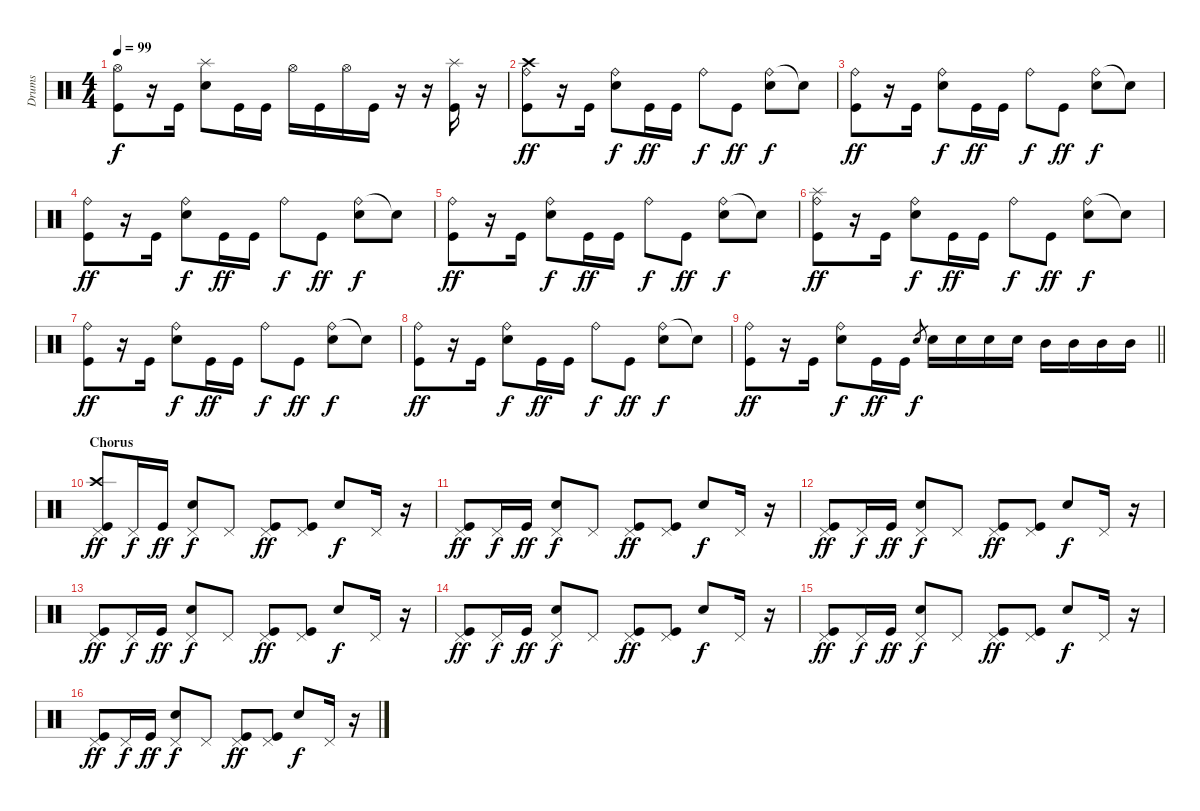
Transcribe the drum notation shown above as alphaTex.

\track ("Drums" "Drums") {instrument percussion}
\staff {score}
\articulation defaults
\ts (4 4)
\tempo 99
\clef neutral
\ks c
("Hi-Hat (open)" "Kick (hit)").8{dy f} r.16 "Kick (hit)".16 ("Splash (hit)" "Electric Snare (hit)").8 "Kick (hit)".16 "Kick (hit)".16 "Hi-Hat (open)".16 "Kick (hit)".16 "Hi-Hat (open)".16 "Kick (hit)".16 r.16 r.16 ("Splash (hit)" "Kick (hit)").16 r.16 |
("Crash high (hit)" "Ride (bell)" "Kick (hit)").8{dy ff} r.16 "Kick (hit)".16 ("Ride (bell)" "Electric Snare (hit)").8{dy f} "Kick (hit)".16{dy ff} "Kick (hit)".16 "Ride (bell)".8{dy f} "Kick (hit)".8{dy ff} ("Ride (bell)" "Electric Snare (hit)").8{dy f} "Snare (hit)"{t}.8 |
("Ride (bell)" "Kick (hit)").8{dy ff} r.16 "Kick (hit)".16 ("Ride (bell)" "Electric Snare (hit)").8{dy f} "Kick (hit)".16{dy ff} "Kick (hit)".16 "Ride (bell)".8{dy f} "Kick (hit)".8{dy ff} ("Ride (bell)" "Electric Snare (hit)").8{dy f} "Snare (hit)"{t}.8 |
("Ride (bell)" "Kick (hit)").8{dy ff} r.16 "Kick (hit)".16 ("Ride (bell)" "Electric Snare (hit)").8{dy f} "Kick (hit)".16{dy ff} "Kick (hit)".16 "Ride (bell)".8{dy f} "Kick (hit)".8{dy ff} ("Ride (bell)" "Electric Snare (hit)").8{dy f} "Snare (hit)"{t}.8 |
("Ride (bell)" "Kick (hit)").8{dy ff} r.16 "Kick (hit)".16 ("Ride (bell)" "Electric Snare (hit)").8{dy f} "Kick (hit)".16{dy ff} "Kick (hit)".16 "Ride (bell)".8{dy f} "Kick (hit)".8{dy ff} ("Ride (bell)" "Electric Snare (hit)").8{dy f} "Snare (hit)"{t}.8 |
("Splash (hit)" "Ride (bell)" "Kick (hit)").8{dy ff} r.16 "Kick (hit)".16 ("Ride (bell)" "Electric Snare (hit)").8{dy f} "Kick (hit)".16{dy ff} "Kick (hit)".16 "Ride (bell)".8{dy f} "Kick (hit)".8{dy ff} ("Ride (bell)" "Electric Snare (hit)").8{dy f} "Snare (hit)"{t}.8 |
("Ride (bell)" "Kick (hit)").8{dy ff} r.16 "Kick (hit)".16 ("Ride (bell)" "Electric Snare (hit)").8{dy f} "Kick (hit)".16{dy ff} "Kick (hit)".16 "Ride (bell)".8{dy f} "Kick (hit)".8{dy ff} ("Ride (bell)" "Electric Snare (hit)").8{dy f} "Snare (hit)"{t}.8 |
("Ride (bell)" "Kick (hit)").8{dy ff} r.16 "Kick (hit)".16 ("Ride (bell)" "Electric Snare (hit)").8{dy f} "Kick (hit)".16{dy ff} "Kick (hit)".16 "Ride (bell)".8{dy f} "Kick (hit)".8{dy ff} ("Ride (bell)" "Electric Snare (hit)").8{dy f} "Snare (hit)"{t}.8 |
\barLineRight lightlight
("Ride (bell)" "Kick (hit)").8{dy ff} r.16 "Kick (hit)".16 ("Ride (bell)" "Electric Snare (hit)").8{dy f} "Kick (hit)".16{dy ff} "Kick (hit)".16 "Electric Snare (hit)".8{gr dy f} "Electric Snare (hit)".16 "Electric Snare (hit)".16 "Electric Snare (hit)".16 "Electric Snare (hit)".16 "Mid Tom (hit)".16 "Mid Tom (hit)".16 "Mid Tom (hit)".16 "Mid Tom (hit)".16 |
\section ("" "Chorus")
("Crash high (hit)" "Pedal Hi-Hat (hit)" "Kick (hit)").8{dy ff} "Pedal Hi-Hat (hit)".16{dy f} "Kick (hit)".16{dy ff} ("Pedal Hi-Hat (hit)" "Electric Snare (hit)").8{dy f} "Pedal Hi-Hat (hit)".8 ("Pedal Hi-Hat (hit)" "Kick (hit)").8{dy ff} ("Pedal Hi-Hat (hit)" "Kick (hit)").8 "Electric Snare (hit)".8{dy f} "Pedal Hi-Hat (hit)".16 r.16 |
("Pedal Hi-Hat (hit)" "Kick (hit)").8{dy ff} "Pedal Hi-Hat (hit)".16{dy f} "Kick (hit)".16{dy ff} ("Pedal Hi-Hat (hit)" "Electric Snare (hit)").8{dy f} "Pedal Hi-Hat (hit)".8 ("Pedal Hi-Hat (hit)" "Kick (hit)").8{dy ff} ("Pedal Hi-Hat (hit)" "Kick (hit)").8 "Electric Snare (hit)".8{dy f} "Pedal Hi-Hat (hit)".16 r.16 |
("Pedal Hi-Hat (hit)" "Kick (hit)").8{dy ff} "Pedal Hi-Hat (hit)".16{dy f} "Kick (hit)".16{dy ff} ("Pedal Hi-Hat (hit)" "Electric Snare (hit)").8{dy f} "Pedal Hi-Hat (hit)".8 ("Pedal Hi-Hat (hit)" "Kick (hit)").8{dy ff} ("Pedal Hi-Hat (hit)" "Kick (hit)").8 "Electric Snare (hit)".8{dy f} "Pedal Hi-Hat (hit)".16 r.16 |
("Pedal Hi-Hat (hit)" "Kick (hit)").8{dy ff} "Pedal Hi-Hat (hit)".16{dy f} "Kick (hit)".16{dy ff} ("Pedal Hi-Hat (hit)" "Electric Snare (hit)").8{dy f} "Pedal Hi-Hat (hit)".8 ("Pedal Hi-Hat (hit)" "Kick (hit)").8{dy ff} ("Pedal Hi-Hat (hit)" "Kick (hit)").8 "Electric Snare (hit)".8{dy f} "Pedal Hi-Hat (hit)".16 r.16 |
("Pedal Hi-Hat (hit)" "Kick (hit)").8{dy ff} "Pedal Hi-Hat (hit)".16{dy f} "Kick (hit)".16{dy ff} ("Pedal Hi-Hat (hit)" "Electric Snare (hit)").8{dy f} "Pedal Hi-Hat (hit)".8 ("Pedal Hi-Hat (hit)" "Kick (hit)").8{dy ff} ("Pedal Hi-Hat (hit)" "Kick (hit)").8 "Electric Snare (hit)".8{dy f} "Pedal Hi-Hat (hit)".16 r.16 |
("Pedal Hi-Hat (hit)" "Kick (hit)").8{dy ff} "Pedal Hi-Hat (hit)".16{dy f} "Kick (hit)".16{dy ff} ("Pedal Hi-Hat (hit)" "Electric Snare (hit)").8{dy f} "Pedal Hi-Hat (hit)".8 ("Pedal Hi-Hat (hit)" "Kick (hit)").8{dy ff} ("Pedal Hi-Hat (hit)" "Kick (hit)").8 "Electric Snare (hit)".8{dy f} "Pedal Hi-Hat (hit)".16 r.16 |
("Pedal Hi-Hat (hit)" "Kick (hit)").8{dy ff} "Pedal Hi-Hat (hit)".16{dy f} "Kick (hit)".16{dy ff} ("Pedal Hi-Hat (hit)" "Electric Snare (hit)").8{dy f} "Pedal Hi-Hat (hit)".8 ("Pedal Hi-Hat (hit)" "Kick (hit)").8{dy ff} ("Pedal Hi-Hat (hit)" "Kick (hit)").8 "Electric Snare (hit)".8{dy f} "Pedal Hi-Hat (hit)".16 r.16
